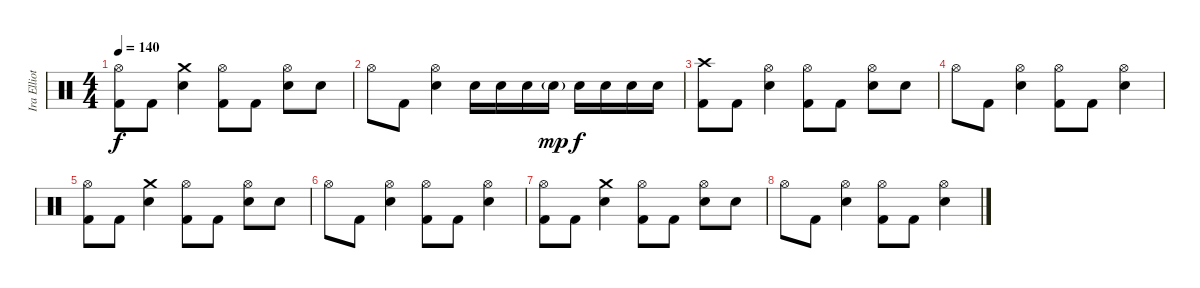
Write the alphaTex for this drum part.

\track ("Ira Elliott" "Ira Elliot") {instrument percussion}
\staff {score}
\articulation defaults
\ts (4 4)
\tempo 140
\clef neutral
\ks c
("Hi-Hat (open)" "Kick (hit) 2").8{dy f} "Kick (hit) 2".8 ("Crash medium (hit)" "Electric Snare (hit)").4 ("Hi-Hat (open)" "Kick (hit) 2").8 "Kick (hit) 2".8 ("Hi-Hat (open)" "Electric Snare (hit)").8 "Electric Snare (hit)".8 |
"Hi-Hat (open)".8 "Kick (hit) 2".8 ("Hi-Hat (open)" "Electric Snare (hit)").4 "Electric Snare (hit)".16 "Electric Snare (hit)".16 "Electric Snare (hit)".16 "Electric Snare (hit)"{g}.16{dy mp} "Electric Snare (hit)".16{dy f} "Electric Snare (hit)".16 "Electric Snare (hit)".16 "Electric Snare (hit)".16 |
("Crash high (hit)" "Kick (hit) 2").8 "Kick (hit) 2".8 ("Hi-Hat (open)" "Electric Snare (hit)").4 ("Hi-Hat (open)" "Kick (hit) 2").8 "Kick (hit) 2".8 ("Hi-Hat (open)" "Electric Snare (hit)").8 "Electric Snare (hit)".8 |
"Hi-Hat (open)".8 "Kick (hit) 2".8 ("Hi-Hat (open)" "Electric Snare (hit)").4 ("Hi-Hat (open)" "Kick (hit) 2").8 "Kick (hit) 2".8 ("Hi-Hat (open)" "Electric Snare (hit)").4 |
("Hi-Hat (open)" "Kick (hit) 2").8 "Kick (hit) 2".8 ("Crash medium (hit)" "Electric Snare (hit)").4 ("Hi-Hat (open)" "Kick (hit) 2").8 "Kick (hit) 2".8 ("Hi-Hat (open)" "Electric Snare (hit)").8 "Electric Snare (hit)".8 |
"Hi-Hat (open)".8 "Kick (hit) 2".8 ("Hi-Hat (open)" "Electric Snare (hit)").4 ("Hi-Hat (open)" "Kick (hit) 2").8 "Kick (hit) 2".8 ("Hi-Hat (open)" "Electric Snare (hit)").4 |
("Hi-Hat (open)" "Kick (hit) 2").8 "Kick (hit) 2".8 ("Crash medium (hit)" "Electric Snare (hit)").4 ("Hi-Hat (open)" "Kick (hit) 2").8 "Kick (hit) 2".8 ("Hi-Hat (open)" "Electric Snare (hit)").8 "Electric Snare (hit)".8 |
"Hi-Hat (open)".8 "Kick (hit) 2".8 ("Hi-Hat (open)" "Electric Snare (hit)").4 ("Hi-Hat (open)" "Kick (hit) 2").8 "Kick (hit) 2".8 ("Hi-Hat (open)" "Electric Snare (hit)").4
